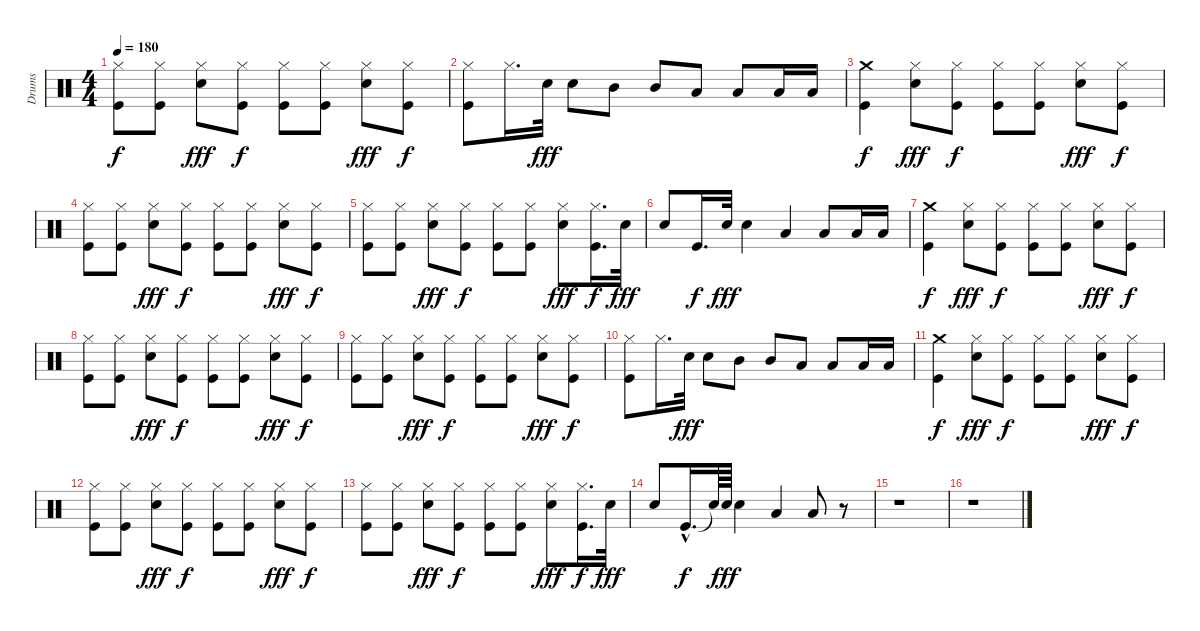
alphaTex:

\track ("Drums" "Drums") {instrument percussion}
\staff {score}
\articulation defaults
\ts (4 4)
\tempo 180
\clef neutral
\ks c
("Hi-Hat (closed)" "Kick (hit)").8{dy f} ("Hi-Hat (closed)" "Kick (hit)").8 ("Hi-Hat (closed)" "Snare (hit) 2").8{dy fff} ("Hi-Hat (closed)" "Kick (hit)").8{dy f} ("Hi-Hat (closed)" "Kick (hit)").8 ("Hi-Hat (closed)" "Kick (hit)").8 ("Snare (hit) 2" "Hi-Hat (closed)").8{dy fff} ("Kick (hit)" "Hi-Hat (closed)").8{dy f} |
("Hi-Hat (closed)" "Kick (hit)").8 "Hi-Hat (closed)".16{d} "Snare (hit) 2".32{dy fff} "Snare (hit) 2".8 "Mid Tom (hit)".8 "Mid Tom (hit)".8 "Low Tom (hit)".8 "Low Tom (hit)".8 "Low Tom (hit)".16 "Low Tom (hit)".16 |
("Crash medium (hit)" "Kick (hit)").4{dy f} ("Hi-Hat (closed)" "Snare (hit) 2").8{dy fff} ("Hi-Hat (closed)" "Kick (hit)").8{dy f} ("Hi-Hat (closed)" "Kick (hit)").8 ("Hi-Hat (closed)" "Kick (hit)").8 ("Snare (hit) 2" "Hi-Hat (closed)").8{dy fff} ("Kick (hit)" "Hi-Hat (closed)").8{dy f} |
("Hi-Hat (closed)" "Kick (hit)").8 ("Hi-Hat (closed)" "Kick (hit)").8 ("Hi-Hat (closed)" "Snare (hit) 2").8{dy fff} ("Hi-Hat (closed)" "Kick (hit)").8{dy f} ("Hi-Hat (closed)" "Kick (hit)").8 ("Hi-Hat (closed)" "Kick (hit)").8 ("Snare (hit) 2" "Hi-Hat (closed)").8{dy fff} ("Kick (hit)" "Hi-Hat (closed)").8{dy f} |
("Hi-Hat (closed)" "Kick (hit)").8 ("Hi-Hat (closed)" "Kick (hit)").8 ("Hi-Hat (closed)" "Snare (hit) 2").8{dy fff} ("Hi-Hat (closed)" "Kick (hit)").8{dy f} ("Hi-Hat (closed)" "Kick (hit)").8 ("Hi-Hat (closed)" "Kick (hit)").8 ("Snare (hit) 2" "Hi-Hat (closed)").8{dy fff} ("Kick (hit)" "Hi-Hat (closed)").16{d dy f} "Snare (hit) 2".32{dy fff} |
"Snare (hit) 2".8 "Kick (hit)".16{d dy f} "Snare (hit) 2".32{dy fff} "Snare (hit) 2".4 "Low Tom (hit)".4 "Low Tom (hit)".8 "Low Tom (hit)".16 "Low Tom (hit)".16 |
("Crash medium (hit)" "Kick (hit)").4{dy f} ("Hi-Hat (closed)" "Snare (hit) 2").8{dy fff} ("Hi-Hat (closed)" "Kick (hit)").8{dy f} ("Hi-Hat (closed)" "Kick (hit)").8 ("Hi-Hat (closed)" "Kick (hit)").8 ("Snare (hit) 2" "Hi-Hat (closed)").8{dy fff} ("Kick (hit)" "Hi-Hat (closed)").8{dy f} |
("Hi-Hat (closed)" "Kick (hit)").8 ("Hi-Hat (closed)" "Kick (hit)").8 ("Hi-Hat (closed)" "Snare (hit) 2").8{dy fff} ("Hi-Hat (closed)" "Kick (hit)").8{dy f} ("Hi-Hat (closed)" "Kick (hit)").8 ("Hi-Hat (closed)" "Kick (hit)").8 ("Snare (hit) 2" "Hi-Hat (closed)").8{dy fff} ("Kick (hit)" "Hi-Hat (closed)").8{dy f} |
("Hi-Hat (closed)" "Kick (hit)").8 ("Hi-Hat (closed)" "Kick (hit)").8 ("Hi-Hat (closed)" "Snare (hit) 2").8{dy fff} ("Hi-Hat (closed)" "Kick (hit)").8{dy f} ("Hi-Hat (closed)" "Kick (hit)").8 ("Hi-Hat (closed)" "Kick (hit)").8 ("Snare (hit) 2" "Hi-Hat (closed)").8{dy fff} ("Kick (hit)" "Hi-Hat (closed)").8{dy f} |
("Hi-Hat (closed)" "Kick (hit)").8 "Hi-Hat (closed)".16{d} "Snare (hit) 2".32{dy fff} "Snare (hit) 2".8 "Mid Tom (hit)".8 "Mid Tom (hit)".8 "Low Tom (hit)".8 "Low Tom (hit)".8 "Low Tom (hit)".16 "Low Tom (hit)".16 |
("Crash medium (hit)" "Kick (hit)").4{dy f} ("Hi-Hat (closed)" "Snare (hit) 2").8{dy fff} ("Hi-Hat (closed)" "Kick (hit)").8{dy f} ("Hi-Hat (closed)" "Kick (hit)").8 ("Hi-Hat (closed)" "Kick (hit)").8 ("Snare (hit) 2" "Hi-Hat (closed)").8{dy fff} ("Kick (hit)" "Hi-Hat (closed)").8{dy f} |
("Hi-Hat (closed)" "Kick (hit)").8 ("Hi-Hat (closed)" "Kick (hit)").8 ("Hi-Hat (closed)" "Snare (hit) 2").8{dy fff} ("Hi-Hat (closed)" "Kick (hit)").8{dy f} ("Hi-Hat (closed)" "Kick (hit)").8 ("Hi-Hat (closed)" "Kick (hit)").8 ("Snare (hit) 2" "Hi-Hat (closed)").8{dy fff} ("Kick (hit)" "Hi-Hat (closed)").8{dy f} |
("Hi-Hat (closed)" "Kick (hit)").8 ("Hi-Hat (closed)" "Kick (hit)").8 ("Hi-Hat (closed)" "Snare (hit) 2").8{dy fff} ("Hi-Hat (closed)" "Kick (hit)").8{dy f} ("Hi-Hat (closed)" "Kick (hit)").8 ("Hi-Hat (closed)" "Kick (hit)").8 ("Snare (hit) 2" "Hi-Hat (closed)").8{dy fff} ("Kick (hit)" "Hi-Hat (closed)").16{d dy f} "Snare (hit) 2".32{dy fff} |
"Snare (hit) 2".8 "Kick (hit)"{hac}.16{d dy f} "Snare (hit)"{t}.64 "Snare (hit) 2".64{dy fff} "Snare (hit) 2".4 "Low Tom (hit)".4 "Low Tom (hit)".8 r.8 |
r.1 |
r.1
